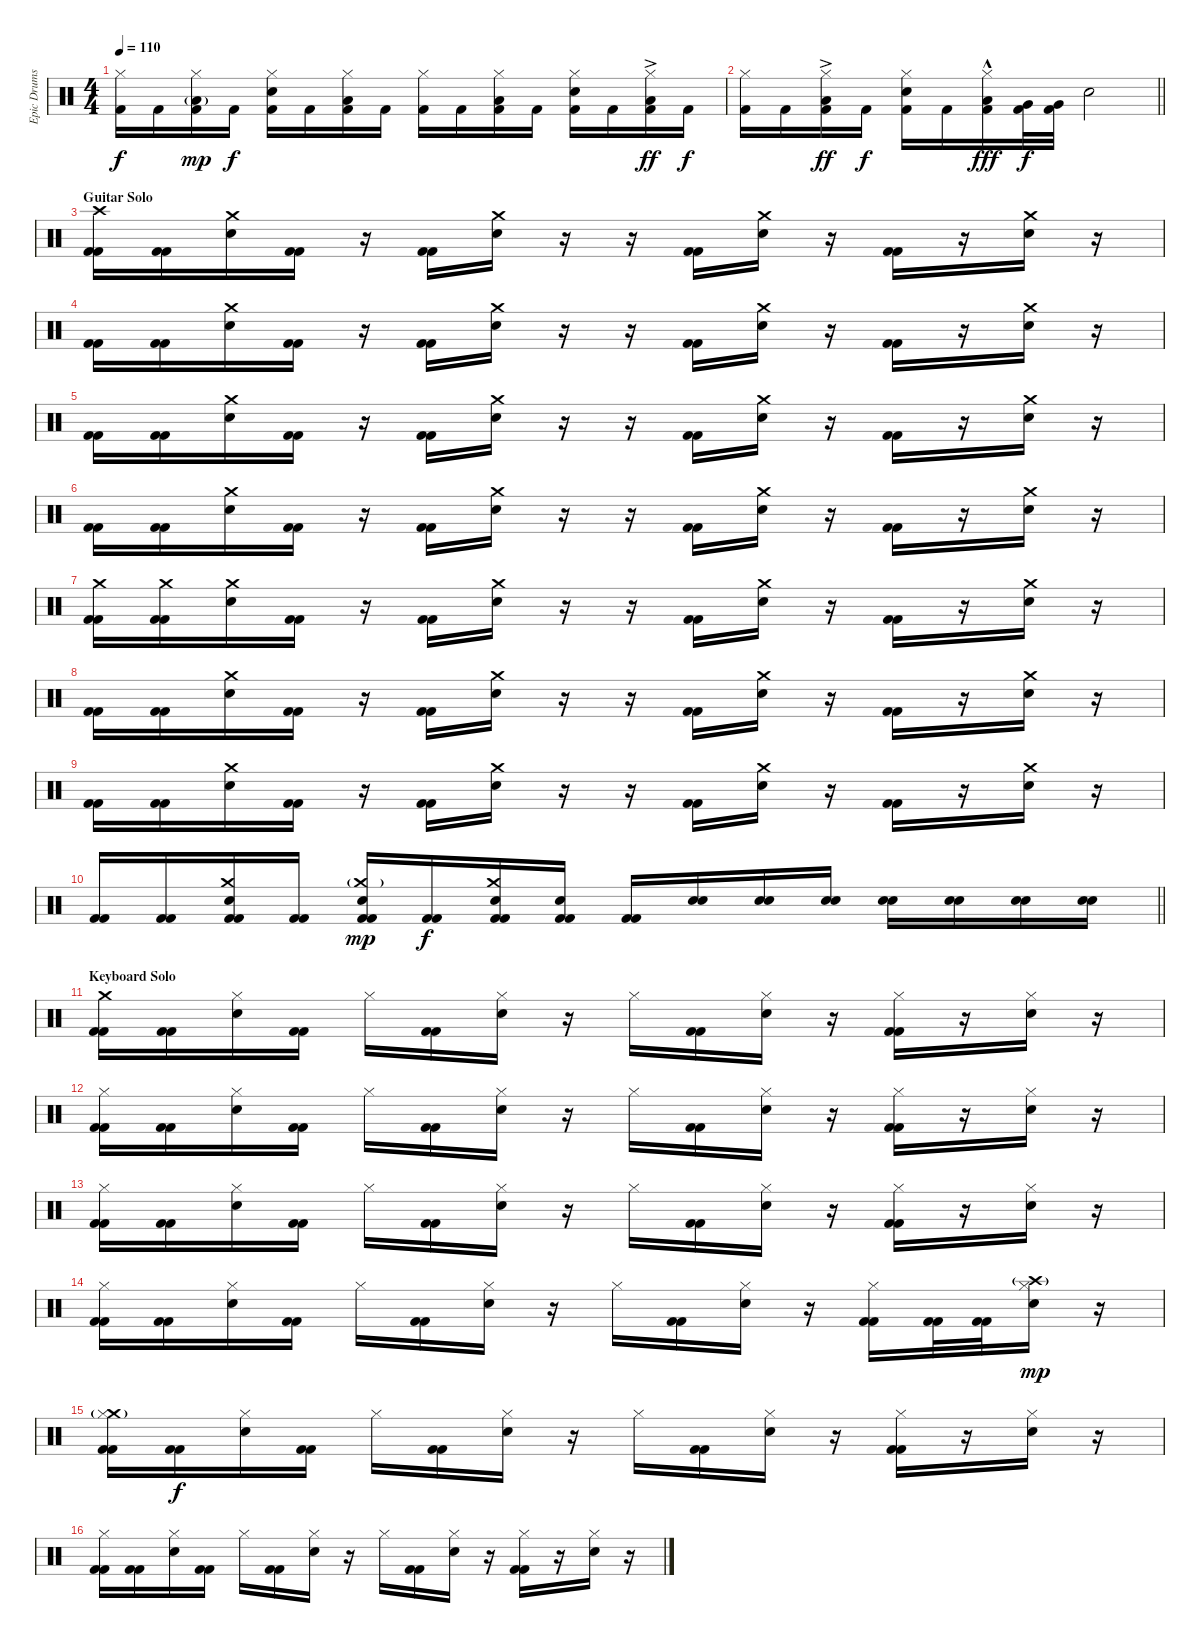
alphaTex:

\track ("Epic Drums" "Epic Drums") {instrument percussion}
\staff {score}
\articulation defaults
\ts (4 4)
\tempo 110
\clef neutral
\ks c
("Hi-Hat (closed)" "Kick (hit) 2").16{dy f} "Kick (hit) 2".16 ("Low Tom (hit)"{g} "Hi-Hat (closed)" "Kick (hit) 2").16{dy mp} "Kick (hit) 2".16{dy f} ("Hi-Hat (closed)" "Snare (hit) 2" "Kick (hit) 2").16 "Kick (hit) 2".16 ("Low Tom (hit)" "Hi-Hat (closed)" "Kick (hit) 2").16 "Kick (hit) 2".16 ("Hi-Hat (closed)" "Kick (hit) 2").16 "Kick (hit) 2".16 ("Low Tom (hit)" "Hi-Hat (closed)" "Kick (hit) 2").16 "Kick (hit) 2".16 ("Hi-Hat (closed)" "Snare (hit) 2" "Kick (hit) 2").16 "Kick (hit) 2".16 ("Low Tom (hit)"{ac} "Hi-Hat (closed)" "Kick (hit) 2").16{dy ff} "Kick (hit) 2".16{dy f} |
\barLineRight lightlight
("Hi-Hat (closed)" "Kick (hit) 2").16 "Kick (hit) 2".16 ("Low Tom (hit)"{ac} "Hi-Hat (closed)" "Kick (hit) 2").16{dy ff} "Kick (hit) 2".16{dy f} ("Hi-Hat (closed)" "Snare (hit) 2" "Kick (hit) 2").16 "Kick (hit) 2".16 ("Low Tom (hit)"{hac} "Hi-Hat (closed)" "Kick (hit) 2").16{dy fff} ("Very Low Tom (hit)" "Kick (hit) 2").32{dy f} ("Very Low Tom (hit)" "Kick (hit) 2").32 "Snare (hit) 2".2 |
\section ("" "Guitar Solo")
("Crash high (hit)" "Kick (hit) 2" "Kick (hit) 2").16 ("Kick (hit) 2" "Kick (hit) 2").16 ("Crash medium (hit)" "Electric Snare (hit)").16 ("Kick (hit) 2" "Kick (hit) 2").16 r.16 ("Kick (hit) 2" "Kick (hit) 2").16 ("Crash medium (hit)" "Electric Snare (hit)").16 r.16 r.16 ("Kick (hit) 2" "Kick (hit) 2").16 ("Crash medium (hit)" "Electric Snare (hit)").16 r.16 ("Kick (hit) 2" "Kick (hit) 2").16 r.16 ("Crash medium (hit)" "Electric Snare (hit)").16 r.16 |
("Kick (hit) 2" "Kick (hit) 2").16 ("Kick (hit) 2" "Kick (hit) 2").16 ("Crash medium (hit)" "Electric Snare (hit)").16 ("Kick (hit) 2" "Kick (hit) 2").16 r.16 ("Kick (hit) 2" "Kick (hit) 2").16 ("Crash medium (hit)" "Electric Snare (hit)").16 r.16 r.16 ("Kick (hit) 2" "Kick (hit) 2").16 ("Crash medium (hit)" "Electric Snare (hit)").16 r.16 ("Kick (hit) 2" "Kick (hit) 2").16 r.16 ("Crash medium (hit)" "Electric Snare (hit)").16 r.16 |
("Kick (hit) 2" "Kick (hit) 2").16 ("Kick (hit) 2" "Kick (hit) 2").16 ("Crash medium (hit)" "Electric Snare (hit)").16 ("Kick (hit) 2" "Kick (hit) 2").16 r.16 ("Kick (hit) 2" "Kick (hit) 2").16 ("Crash medium (hit)" "Electric Snare (hit)").16 r.16 r.16 ("Kick (hit) 2" "Kick (hit) 2").16 ("Crash medium (hit)" "Electric Snare (hit)").16 r.16 ("Kick (hit) 2" "Kick (hit) 2").16 r.16 ("Crash medium (hit)" "Electric Snare (hit)").16 r.16 |
("Kick (hit) 2" "Kick (hit) 2").16 ("Kick (hit) 2" "Kick (hit) 2").16 ("Crash medium (hit)" "Electric Snare (hit)").16 ("Kick (hit) 2" "Kick (hit) 2").16 r.16 ("Kick (hit) 2" "Kick (hit) 2").16 ("Crash medium (hit)" "Electric Snare (hit)").16 r.16 r.16 ("Kick (hit) 2" "Kick (hit) 2").16 ("Crash medium (hit)" "Electric Snare (hit)").16 r.16 ("Kick (hit) 2" "Kick (hit) 2").16 r.16 ("Crash medium (hit)" "Electric Snare (hit)").16 r.16 |
("Crash medium (hit)" "Kick (hit) 2" "Kick (hit) 2").16 ("Crash medium (hit)" "Kick (hit) 2" "Kick (hit) 2").16 ("Crash medium (hit)" "Electric Snare (hit)").16 ("Kick (hit) 2" "Kick (hit) 2").16 r.16 ("Kick (hit) 2" "Kick (hit) 2").16 ("Crash medium (hit)" "Electric Snare (hit)").16 r.16 r.16 ("Kick (hit) 2" "Kick (hit) 2").16 ("Crash medium (hit)" "Electric Snare (hit)").16 r.16 ("Kick (hit) 2" "Kick (hit) 2").16 r.16 ("Crash medium (hit)" "Electric Snare (hit)").16 r.16 |
("Kick (hit) 2" "Kick (hit) 2").16 ("Kick (hit) 2" "Kick (hit) 2").16 ("Crash medium (hit)" "Electric Snare (hit)").16 ("Kick (hit) 2" "Kick (hit) 2").16 r.16 ("Kick (hit) 2" "Kick (hit) 2").16 ("Crash medium (hit)" "Electric Snare (hit)").16 r.16 r.16 ("Kick (hit) 2" "Kick (hit) 2").16 ("Crash medium (hit)" "Electric Snare (hit)").16 r.16 ("Kick (hit) 2" "Kick (hit) 2").16 r.16 ("Crash medium (hit)" "Electric Snare (hit)").16 r.16 |
("Kick (hit) 2" "Kick (hit) 2").16 ("Kick (hit) 2" "Kick (hit) 2").16 ("Crash medium (hit)" "Electric Snare (hit)").16 ("Kick (hit) 2" "Kick (hit) 2").16 r.16 ("Kick (hit) 2" "Kick (hit) 2").16 ("Crash medium (hit)" "Electric Snare (hit)").16 r.16 r.16 ("Kick (hit) 2" "Kick (hit) 2").16 ("Crash medium (hit)" "Electric Snare (hit)").16 r.16 ("Kick (hit) 2" "Kick (hit) 2").16 r.16 ("Crash medium (hit)" "Electric Snare (hit)").16 r.16 |
\barLineRight lightlight
("Kick (hit) 2" "Kick (hit) 2").16 ("Kick (hit) 2" "Kick (hit) 2").16 ("Crash medium (hit)" "Electric Snare (hit)" "Kick (hit) 2" "Kick (hit) 2").16 ("Kick (hit) 2" "Kick (hit) 2").16 ("Crash medium (hit)"{g} "Electric Snare (hit)" "Kick (hit) 2" "Kick (hit) 2").16{dy mp} ("Kick (hit) 2" "Kick (hit) 2").16{dy f} ("Crash medium (hit)" "Electric Snare (hit)" "Kick (hit) 2" "Kick (hit) 2").16 ("Electric Snare (hit)" "Kick (hit) 2" "Kick (hit) 2").16 ("Kick (hit) 2" "Kick (hit) 2").16 ("Electric Snare (hit)" "Electric Snare (hit)").16 ("Electric Snare (hit)" "Electric Snare (hit)").16 ("Electric Snare (hit)" "Electric Snare (hit)").16 ("Electric Snare (hit)" "Electric Snare (hit)").16 ("Electric Snare (hit)" "Electric Snare (hit)").16 ("Electric Snare (hit)" "Electric Snare (hit)").16 ("Electric Snare (hit)" "Electric Snare (hit)").16 |
\section ("" "Keyboard Solo")
("Crash medium (hit)" "Kick (hit) 2" "Kick (hit) 2").16 ("Kick (hit) 2" "Kick (hit) 2").16 ("Hi-Hat (closed)" "Electric Snare (hit)").16 ("Kick (hit) 2" "Kick (hit) 2").16 "Hi-Hat (closed)".16 ("Kick (hit) 2" "Kick (hit) 2").16 ("Hi-Hat (closed)" "Electric Snare (hit)").16 r.16 "Hi-Hat (closed)".16 ("Kick (hit) 2" "Kick (hit) 2").16 ("Hi-Hat (closed)" "Electric Snare (hit)").16 r.16 ("Hi-Hat (closed)" "Kick (hit) 2" "Kick (hit) 2").16 r.16 ("Hi-Hat (closed)" "Electric Snare (hit)").16 r.16 |
("Hi-Hat (closed)" "Kick (hit) 2" "Kick (hit) 2").16 ("Kick (hit) 2" "Kick (hit) 2").16 ("Hi-Hat (closed)" "Electric Snare (hit)").16 ("Kick (hit) 2" "Kick (hit) 2").16 "Hi-Hat (closed)".16 ("Kick (hit) 2" "Kick (hit) 2").16 ("Hi-Hat (closed)" "Electric Snare (hit)").16 r.16 "Hi-Hat (closed)".16 ("Kick (hit) 2" "Kick (hit) 2").16 ("Hi-Hat (closed)" "Electric Snare (hit)").16 r.16 ("Hi-Hat (closed)" "Kick (hit) 2" "Kick (hit) 2").16 r.16 ("Hi-Hat (closed)" "Electric Snare (hit)").16 r.16 |
("Hi-Hat (closed)" "Kick (hit) 2" "Kick (hit) 2").16 ("Kick (hit) 2" "Kick (hit) 2").16 ("Hi-Hat (closed)" "Electric Snare (hit)").16 ("Kick (hit) 2" "Kick (hit) 2").16 "Hi-Hat (closed)".16 ("Kick (hit) 2" "Kick (hit) 2").16 ("Hi-Hat (closed)" "Electric Snare (hit)").16 r.16 "Hi-Hat (closed)".16 ("Kick (hit) 2" "Kick (hit) 2").16 ("Hi-Hat (closed)" "Electric Snare (hit)").16 r.16 ("Hi-Hat (closed)" "Kick (hit) 2" "Kick (hit) 2").16 r.16 ("Hi-Hat (closed)" "Electric Snare (hit)").16 r.16 |
("Hi-Hat (closed)" "Kick (hit) 2" "Kick (hit) 2").16 ("Kick (hit) 2" "Kick (hit) 2").16 ("Hi-Hat (closed)" "Electric Snare (hit)").16 ("Kick (hit) 2" "Kick (hit) 2").16 "Hi-Hat (closed)".16 ("Kick (hit) 2" "Kick (hit) 2").16 ("Hi-Hat (closed)" "Electric Snare (hit)").16 r.16 "Hi-Hat (closed)".16 ("Kick (hit) 2" "Kick (hit) 2").16 ("Hi-Hat (closed)" "Electric Snare (hit)").16 r.16 ("Hi-Hat (closed)" "Kick (hit) 2" "Kick (hit) 2").16 ("Kick (hit) 2" "Kick (hit) 2").32 ("Kick (hit) 2" "Kick (hit) 2").32 ("Crash high (hit)"{g} "Hi-Hat (closed)" "Electric Snare (hit)").16{dy mp} r.16 |
("Crash medium (hit)"{g} "Hi-Hat (closed)" "Kick (hit) 2" "Kick (hit) 2").16 ("Kick (hit) 2" "Kick (hit) 2").16{dy f} ("Hi-Hat (closed)" "Electric Snare (hit)").16 ("Kick (hit) 2" "Kick (hit) 2").16 "Hi-Hat (closed)".16 ("Kick (hit) 2" "Kick (hit) 2").16 ("Hi-Hat (closed)" "Electric Snare (hit)").16 r.16 "Hi-Hat (closed)".16 ("Kick (hit) 2" "Kick (hit) 2").16 ("Hi-Hat (closed)" "Electric Snare (hit)").16 r.16 ("Hi-Hat (closed)" "Kick (hit) 2" "Kick (hit) 2").16 r.16 ("Hi-Hat (closed)" "Electric Snare (hit)").16 r.16 |
("Hi-Hat (closed)" "Kick (hit) 2" "Kick (hit) 2").16 ("Kick (hit) 2" "Kick (hit) 2").16 ("Hi-Hat (closed)" "Electric Snare (hit)").16 ("Kick (hit) 2" "Kick (hit) 2").16 "Hi-Hat (closed)".16 ("Kick (hit) 2" "Kick (hit) 2").16 ("Hi-Hat (closed)" "Electric Snare (hit)").16 r.16 "Hi-Hat (closed)".16 ("Kick (hit) 2" "Kick (hit) 2").16 ("Hi-Hat (closed)" "Electric Snare (hit)").16 r.16 ("Hi-Hat (closed)" "Kick (hit) 2" "Kick (hit) 2").16 r.16 ("Hi-Hat (closed)" "Electric Snare (hit)").16 r.16
